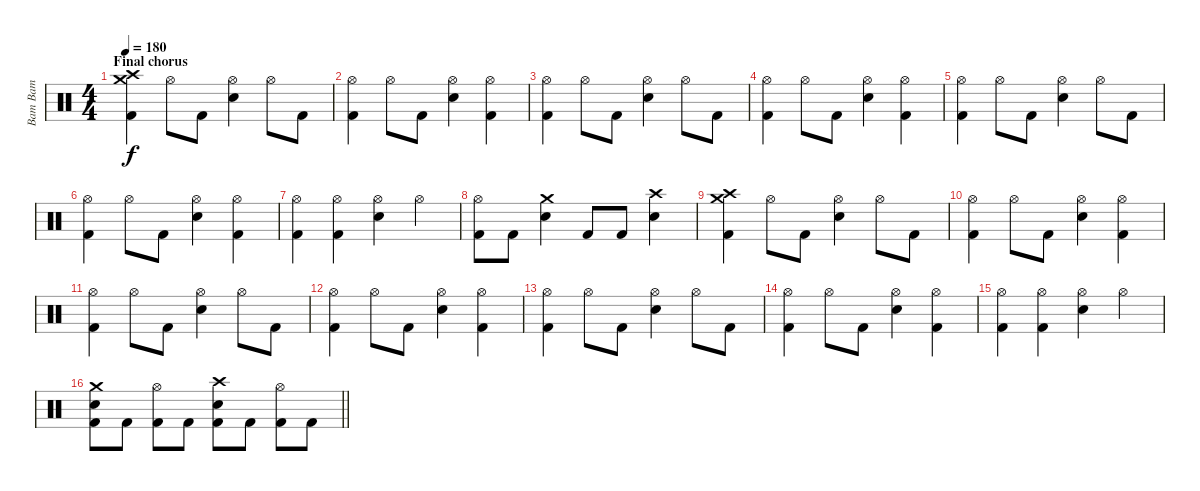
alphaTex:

\track ("Bam Bam" "Bam Bam") {instrument percussion}
\staff {score}
\articulation defaults
\ts (4 4)
\section ("" "Final chorus")
\tempo 180
\clef neutral
\ks c
("Crash medium (hit)" "Crash high (hit)" "Kick (hit) 2").4{dy f} "Hi-Hat (open)".8 "Kick (hit) 2".8 ("Hi-Hat (open)" "Electric Snare (hit)").4 "Hi-Hat (open)".8 "Kick (hit) 2".8 |
("Hi-Hat (open)" "Kick (hit) 2").4 "Hi-Hat (open)".8 "Kick (hit) 2".8 ("Hi-Hat (open)" "Electric Snare (hit)").4 ("Hi-Hat (open)" "Kick (hit) 2").4 |
("Hi-Hat (open)" "Kick (hit) 2").4 "Hi-Hat (open)".8 "Kick (hit) 2".8 ("Hi-Hat (open)" "Electric Snare (hit)").4 "Hi-Hat (open)".8 "Kick (hit) 2".8 |
("Hi-Hat (open)" "Kick (hit) 2").4 "Hi-Hat (open)".8 "Kick (hit) 2".8 ("Hi-Hat (open)" "Electric Snare (hit)").4 ("Hi-Hat (open)" "Kick (hit) 2").4 |
("Hi-Hat (open)" "Kick (hit) 2").4 "Hi-Hat (open)".8 "Kick (hit) 2".8 ("Hi-Hat (open)" "Electric Snare (hit)").4 "Hi-Hat (open)".8 "Kick (hit) 2".8 |
("Hi-Hat (open)" "Kick (hit) 2").4 "Hi-Hat (open)".8 "Kick (hit) 2".8 ("Hi-Hat (open)" "Electric Snare (hit)").4 ("Hi-Hat (open)" "Kick (hit) 2").4 |
("Hi-Hat (open)" "Kick (hit) 2").4 ("Hi-Hat (open)" "Kick (hit) 2").4 ("Hi-Hat (open)" "Electric Snare (hit)").4 "Hi-Hat (open)".4 |
("Hi-Hat (open)" "Kick (hit) 2").8 "Kick (hit) 2".8 ("Crash medium (hit)" "Electric Snare (hit)").4 "Kick (hit) 2".8 "Kick (hit) 2".8 ("Crash high (hit)" "Electric Snare (hit)").4 |
("Crash medium (hit)" "Crash high (hit)" "Kick (hit) 2").4 "Hi-Hat (open)".8 "Kick (hit) 2".8 ("Hi-Hat (open)" "Electric Snare (hit)").4 "Hi-Hat (open)".8 "Kick (hit) 2".8 |
("Hi-Hat (open)" "Kick (hit) 2").4 "Hi-Hat (open)".8 "Kick (hit) 2".8 ("Hi-Hat (open)" "Electric Snare (hit)").4 ("Hi-Hat (open)" "Kick (hit) 2").4 |
("Hi-Hat (open)" "Kick (hit) 2").4 "Hi-Hat (open)".8 "Kick (hit) 2".8 ("Hi-Hat (open)" "Electric Snare (hit)").4 "Hi-Hat (open)".8 "Kick (hit) 2".8 |
("Hi-Hat (open)" "Kick (hit) 2").4 "Hi-Hat (open)".8 "Kick (hit) 2".8 ("Hi-Hat (open)" "Electric Snare (hit)").4 ("Hi-Hat (open)" "Kick (hit) 2").4 |
("Hi-Hat (open)" "Kick (hit) 2").4 "Hi-Hat (open)".8 "Kick (hit) 2".8 ("Hi-Hat (open)" "Electric Snare (hit)").4 "Hi-Hat (open)".8 "Kick (hit) 2".8 |
("Hi-Hat (open)" "Kick (hit) 2").4 "Hi-Hat (open)".8 "Kick (hit) 2".8 ("Hi-Hat (open)" "Electric Snare (hit)").4 ("Hi-Hat (open)" "Kick (hit) 2").4 |
("Hi-Hat (open)" "Kick (hit) 2").4 ("Hi-Hat (open)" "Kick (hit) 2").4 ("Hi-Hat (open)" "Electric Snare (hit)").4 "Hi-Hat (open)".4 |
\barLineRight lightlight
("Crash medium (hit)" "Electric Snare (hit)" "Kick (hit) 2").8 "Kick (hit) 2".8 ("Hi-Hat (open)" "Kick (hit) 2").8 "Kick (hit) 2".8 ("Crash high (hit)" "Electric Snare (hit)" "Kick (hit) 2").8 "Kick (hit) 2".8 ("Hi-Hat (open)" "Kick (hit) 2").8 "Kick (hit) 2".8
